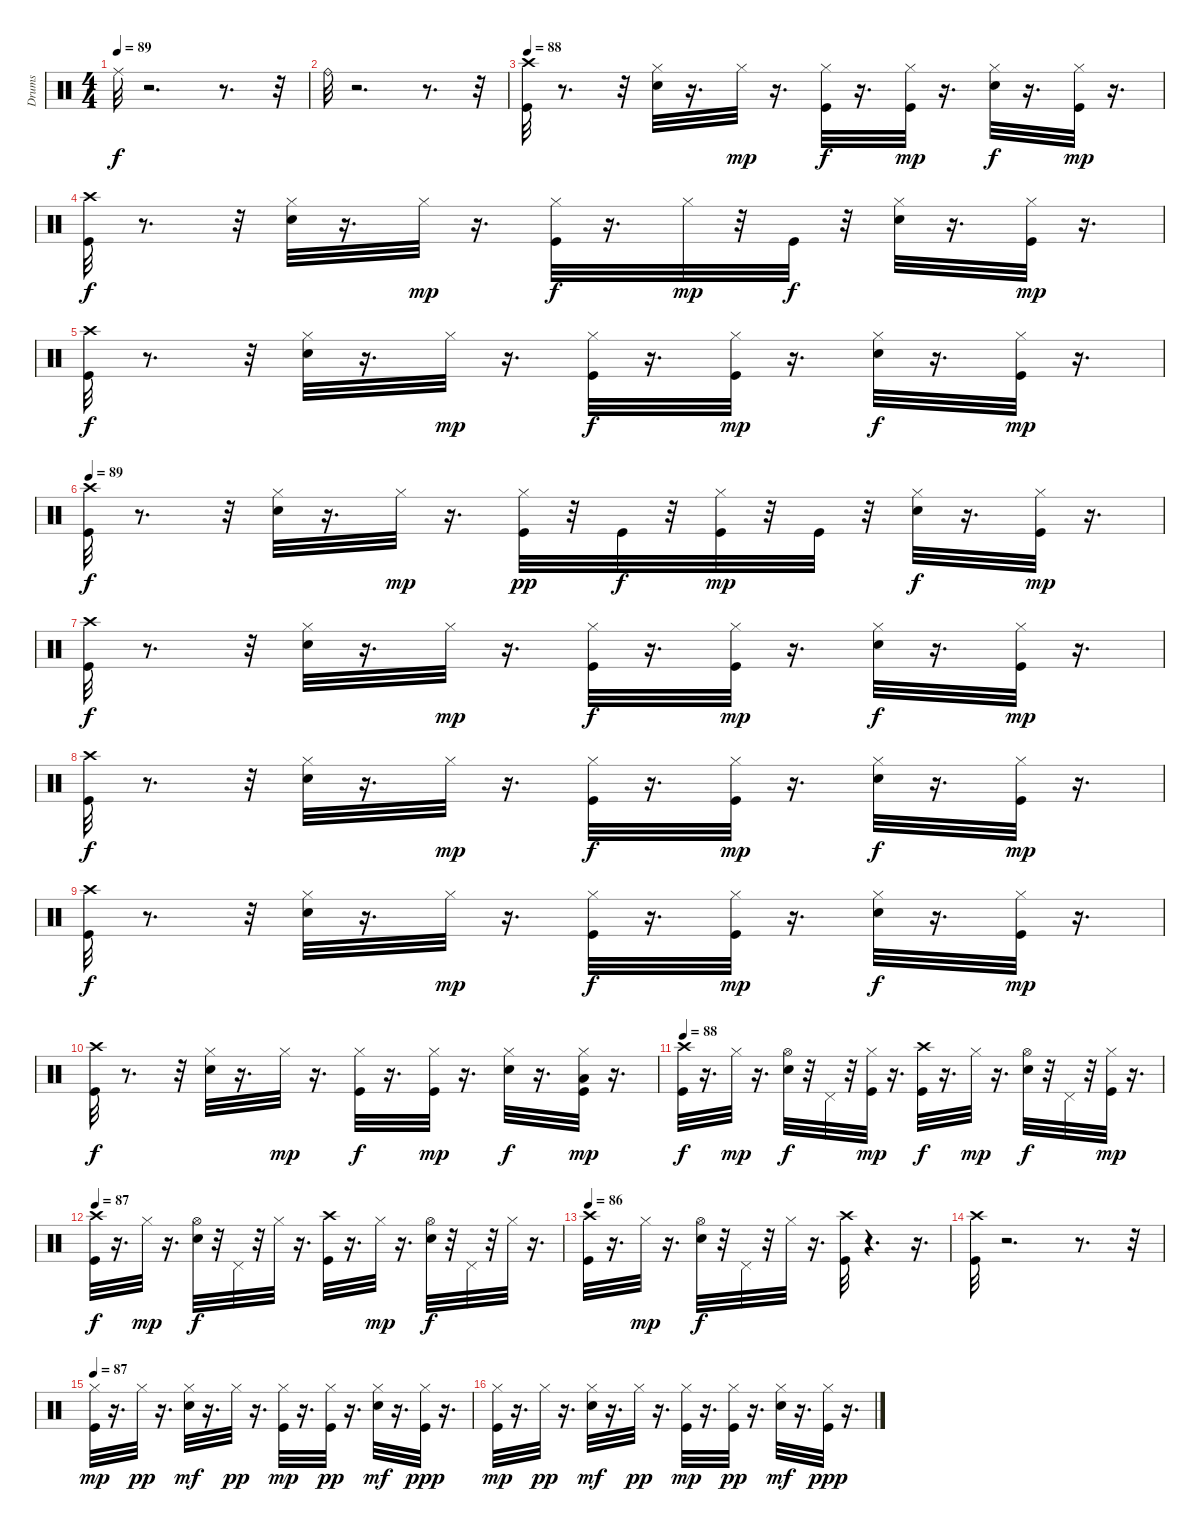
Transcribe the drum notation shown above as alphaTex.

\track ("Drums" "Drums") {instrument percussion}
\staff {score}
\articulation defaults
\ts (4 4)
\tempo 89
\clef neutral
\ks c "Ride (middle)".32{dy f}
r.2{d} r.8{d} r.32 |
"Ride (bell)".32 r.2{d} r.8{d} r.32 |
\tempo 88
("Kick (hit)" "Crash high (hit)").32 r.8{d} r.32 ("Hi-Hat (closed)" "Electric Snare (hit)").32 r.16{d} "Hi-Hat (closed)".32{dy mp} r.16{d} ("Hi-Hat (closed)" "Kick (hit)").32{dy f} r.16{d} ("Hi-Hat (closed)" "Kick (hit)").32{dy mp} r.16{d} ("Electric Snare (hit)" "Hi-Hat (closed)").32{dy f} r.16{d} ("Kick (hit)" "Hi-Hat (closed)").32{dy mp} r.16{d} |
("Kick (hit)" "Crash high (hit)").32{dy f} r.8{d} r.32 ("Electric Snare (hit)" "Hi-Hat (closed)").32 r.16{d} "Hi-Hat (closed)".32{dy mp} r.16{d} ("Hi-Hat (closed)" "Kick (hit)").32{dy f} r.16{d} "Hi-Hat (closed)".32{dy mp} r.32 "Kick (hit)".32{dy f} r.32 ("Electric Snare (hit)" "Hi-Hat (closed)").32 r.16{d} ("Hi-Hat (closed)" "Kick (hit)").32{dy mp} r.16{d} |
("Kick (hit)" "Crash high (hit)").32{dy f} r.8{d} r.32 ("Electric Snare (hit)" "Hi-Hat (closed)").32 r.16{d} "Hi-Hat (closed)".32{dy mp} r.16{d} ("Hi-Hat (closed)" "Kick (hit)").32{dy f} r.16{d} ("Hi-Hat (closed)" "Kick (hit)").32{dy mp} r.16{d} ("Electric Snare (hit)" "Hi-Hat (closed)").32{dy f} r.16{d} ("Hi-Hat (closed)" "Kick (hit)").32{dy mp} r.16{d} |
\tempo 89
("Kick (hit)" "Crash high (hit)").32{dy f} r.8{d} r.32 ("Electric Snare (hit)" "Hi-Hat (closed)").32 r.16{d} "Hi-Hat (closed)".32{dy mp} r.16{d} ("Kick (hit)" "Hi-Hat (closed)").32{dy pp} r.32 "Kick (hit)".32{dy f} r.32 ("Kick (hit)" "Hi-Hat (closed)").32{dy mp} r.32 "Kick (hit)".32 r.32 ("Electric Snare (hit)" "Hi-Hat (closed)").32{dy f} r.16{d} ("Hi-Hat (closed)" "Kick (hit)").32{dy mp} r.16{d} |
("Kick (hit)" "Crash high (hit)").32{dy f} r.8{d} r.32 ("Electric Snare (hit)" "Hi-Hat (closed)").32 r.16{d} "Hi-Hat (closed)".32{dy mp} r.16{d} ("Hi-Hat (closed)" "Kick (hit)").32{dy f} r.16{d} ("Hi-Hat (closed)" "Kick (hit)").32{dy mp} r.16{d} ("Electric Snare (hit)" "Hi-Hat (closed)").32{dy f} r.16{d} ("Hi-Hat (closed)" "Kick (hit)").32{dy mp} r.16{d} |
("Kick (hit)" "Crash high (hit)").32{dy f} r.8{d} r.32 ("Electric Snare (hit)" "Hi-Hat (closed)").32 r.16{d} "Hi-Hat (closed)".32{dy mp} r.16{d} ("Hi-Hat (closed)" "Kick (hit)").32{dy f} r.16{d} ("Hi-Hat (closed)" "Kick (hit)").32{dy mp} r.16{d} ("Electric Snare (hit)" "Hi-Hat (closed)").32{dy f} r.16{d} ("Hi-Hat (closed)" "Kick (hit)").32{dy mp} r.16{d} |
("Kick (hit)" "Crash high (hit)").32{dy f} r.8{d} r.32 ("Electric Snare (hit)" "Hi-Hat (closed)").32 r.16{d} "Hi-Hat (closed)".32{dy mp} r.16{d} ("Hi-Hat (closed)" "Kick (hit)").32{dy f} r.16{d} ("Hi-Hat (closed)" "Kick (hit)").32{dy mp} r.16{d} ("Hi-Hat (closed)" "Electric Snare (hit)").32{dy f} r.16{d} ("Hi-Hat (closed)" "Kick (hit)").32{dy mp} r.16{d} |
("Kick (hit)" "Crash high (hit)").32{dy f} r.8{d} r.32 ("Electric Snare (hit)" "Hi-Hat (closed)").32 r.16{d} "Hi-Hat (closed)".32{dy mp} r.16{d} ("Hi-Hat (closed)" "Kick (hit)").32{dy f} r.16{d} ("Hi-Hat (closed)" "Kick (hit)").32{dy mp} r.16{d} ("Electric Snare (hit)" "Hi-Hat (closed)").32{dy f} r.16{d} ("Low Floor Tom (hit)" "Hi-Hat (closed)" "Kick (hit)").32{dy mp} r.16{d} |
\tempo 88
("Crash high (hit)" "Kick (hit)").32{dy f} r.16{d} "Hi-Hat (closed)".32{dy mp} r.16{d} ("Hi-Hat (open)" "Electric Snare (hit)").32{dy f} r.32 "Pedal Hi-Hat (hit)".32 r.32 ("Kick (hit)" "Hi-Hat (closed)").32{dy mp} r.16{d} ("Kick (hit)" "Crash high (hit)").32{dy f} r.16{d} "Hi-Hat (closed)".32{dy mp} r.16{d} ("Electric Snare (hit)" "Hi-Hat (open)").32{dy f} r.32 "Pedal Hi-Hat (hit)".32 r.32 ("Kick (hit)" "Hi-Hat (closed)").32{dy mp} r.16{d} |
\tempo 87
("Kick (hit)" "Crash high (hit)").32{dy f} r.16{d} "Hi-Hat (closed)".32{dy mp} r.16{d} ("Electric Snare (hit)" "Hi-Hat (open)").32{dy f} r.32 "Pedal Hi-Hat (hit)".32 r.32 "Hi-Hat (closed)".32 r.16{d} ("Kick (hit)" "Crash high (hit)").32 r.16{d} "Hi-Hat (closed)".32{dy mp} r.16{d} ("Electric Snare (hit)" "Hi-Hat (open)").32{dy f} r.32 "Pedal Hi-Hat (hit)".32 r.32 "Hi-Hat (closed)".32 r.16{d} |
\tempo 86
("Kick (hit)" "Crash high (hit)").32 r.16{d} "Hi-Hat (closed)".32{dy mp} r.16{d} ("Electric Snare (hit)" "Hi-Hat (open)").32{dy f} r.32 "Pedal Hi-Hat (hit)".32 r.32 "Hi-Hat (closed)".32 r.16{d} ("Crash high (hit)" "Kick (hit)").32 r.4{d} r.16{d} |
("Kick (hit)" "Crash high (hit)").32 r.2{d} r.8{d} r.32 |
\tempo 87
("Kick (hit)" "Hi-Hat (closed)").32{dy mp} r.16{d} "Hi-Hat (closed)".32{dy pp} r.16{d} ("Hi-Hat (closed)" "Electric Snare (hit)").32{dy mf} r.16{d} "Hi-Hat (closed)".32{dy pp} r.16{d} ("Kick (hit)" "Hi-Hat (closed)").32{dy mp} r.16{d} ("Kick (hit)" "Hi-Hat (closed)").32{dy pp} r.16{d} ("Hi-Hat (closed)" "Electric Snare (hit)").32{dy mf} r.16{d} ("Kick (hit)" "Hi-Hat (closed)").32{dy ppp} r.16{d} |
("Kick (hit)" "Hi-Hat (closed)").32{dy mp} r.16{d} "Hi-Hat (closed)".32{dy pp} r.16{d} ("Hi-Hat (closed)" "Electric Snare (hit)").32{dy mf} r.16{d} "Hi-Hat (closed)".32{dy pp} r.16{d} ("Kick (hit)" "Hi-Hat (closed)").32{dy mp} r.16{d} ("Kick (hit)" "Hi-Hat (closed)").32{dy pp} r.16{d} ("Hi-Hat (closed)" "Electric Snare (hit)").32{dy mf} r.16{d} ("Kick (hit)" "Hi-Hat (closed)").32{dy ppp} r.16{d}
